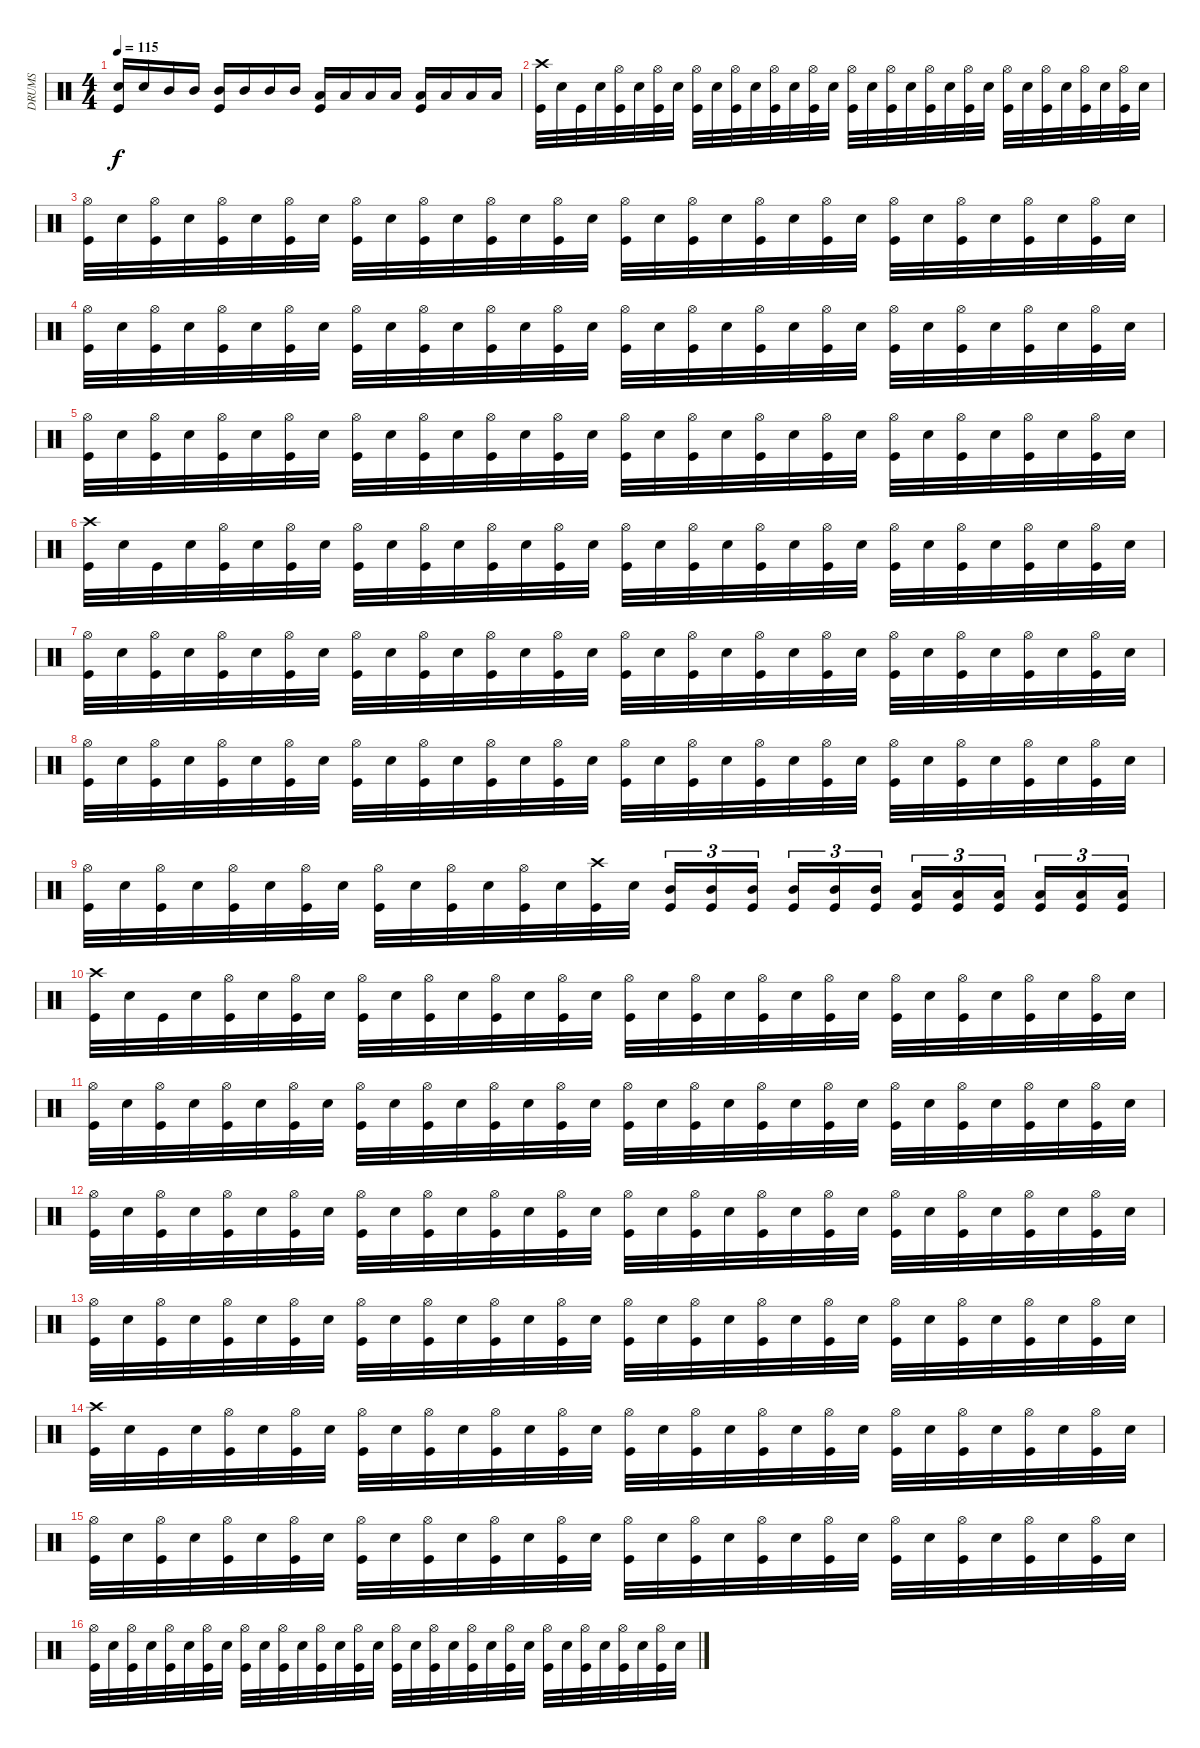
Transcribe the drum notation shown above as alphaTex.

\track ("DRUMS" "DRUMS") {instrument percussion}
\staff {score}
\articulation defaults
\ts (4 4)
\tempo 115
\clef neutral
\ks c
("Snare (hit) 2" "Kick (hit)").16{dy f} "Snare (hit) 2".16 "Mid Tom (hit)".16 "Mid Tom (hit)".16 ("Mid Tom (hit)" "Kick (hit)").16 "Mid Tom (hit)".16 "Mid Tom (hit)".16 "Mid Tom (hit)".16 ("Low Tom (hit)" "Kick (hit)").16 "Low Tom (hit)".16 "Low Tom (hit)".16 "Low Tom (hit)".16 ("Low Tom (hit)" "Kick (hit)").16 "Low Tom (hit)".16 "Low Tom (hit)".16 "Low Tom (hit)".16 |
("Crash high (hit)" "Kick (hit)").32 "Snare (hit) 2".32 "Kick (hit)".32 "Snare (hit) 2".32 ("Hi-Hat (open)" "Kick (hit)").32 "Snare (hit) 2".32 ("Hi-Hat (open)" "Kick (hit)").32 "Snare (hit) 2".32 ("Hi-Hat (open)" "Kick (hit)").32 "Snare (hit) 2".32 ("Hi-Hat (open)" "Kick (hit)").32 "Snare (hit) 2".32 ("Hi-Hat (open)" "Kick (hit)").32 "Snare (hit) 2".32 ("Hi-Hat (open)" "Kick (hit)").32 "Snare (hit) 2".32 ("Hi-Hat (open)" "Kick (hit)").32 "Snare (hit) 2".32 ("Hi-Hat (open)" "Kick (hit)").32 "Snare (hit) 2".32 ("Hi-Hat (open)" "Kick (hit)").32 "Snare (hit) 2".32 ("Hi-Hat (open)" "Kick (hit)").32 "Snare (hit) 2".32 ("Hi-Hat (open)" "Kick (hit)").32 "Snare (hit) 2".32 ("Hi-Hat (open)" "Kick (hit)").32 "Snare (hit) 2".32 ("Hi-Hat (open)" "Kick (hit)").32 "Snare (hit) 2".32 ("Hi-Hat (open)" "Kick (hit)").32 "Snare (hit) 2".32 |
("Hi-Hat (open)" "Kick (hit)").32 "Snare (hit) 2".32 ("Hi-Hat (open)" "Kick (hit)").32 "Snare (hit) 2".32 ("Hi-Hat (open)" "Kick (hit)").32 "Snare (hit) 2".32 ("Hi-Hat (open)" "Kick (hit)").32 "Snare (hit) 2".32 ("Hi-Hat (open)" "Kick (hit)").32 "Snare (hit) 2".32 ("Hi-Hat (open)" "Kick (hit)").32 "Snare (hit) 2".32 ("Hi-Hat (open)" "Kick (hit)").32 "Snare (hit) 2".32 ("Hi-Hat (open)" "Kick (hit)").32 "Snare (hit) 2".32 ("Hi-Hat (open)" "Kick (hit)").32 "Snare (hit) 2".32 ("Hi-Hat (open)" "Kick (hit)").32 "Snare (hit) 2".32 ("Hi-Hat (open)" "Kick (hit)").32 "Snare (hit) 2".32 ("Hi-Hat (open)" "Kick (hit)").32 "Snare (hit) 2".32 ("Hi-Hat (open)" "Kick (hit)").32 "Snare (hit) 2".32 ("Hi-Hat (open)" "Kick (hit)").32 "Snare (hit) 2".32 ("Hi-Hat (open)" "Kick (hit)").32 "Snare (hit) 2".32 ("Hi-Hat (open)" "Kick (hit)").32 "Snare (hit) 2".32 |
("Hi-Hat (open)" "Kick (hit)").32 "Snare (hit) 2".32 ("Hi-Hat (open)" "Kick (hit)").32 "Snare (hit) 2".32 ("Hi-Hat (open)" "Kick (hit)").32 "Snare (hit) 2".32 ("Hi-Hat (open)" "Kick (hit)").32 "Snare (hit) 2".32 ("Hi-Hat (open)" "Kick (hit)").32 "Snare (hit) 2".32 ("Hi-Hat (open)" "Kick (hit)").32 "Snare (hit) 2".32 ("Hi-Hat (open)" "Kick (hit)").32 "Snare (hit) 2".32 ("Hi-Hat (open)" "Kick (hit)").32 "Snare (hit) 2".32 ("Hi-Hat (open)" "Kick (hit)").32 "Snare (hit) 2".32 ("Hi-Hat (open)" "Kick (hit)").32 "Snare (hit) 2".32 ("Hi-Hat (open)" "Kick (hit)").32 "Snare (hit) 2".32 ("Hi-Hat (open)" "Kick (hit)").32 "Snare (hit) 2".32 ("Hi-Hat (open)" "Kick (hit)").32 "Snare (hit) 2".32 ("Hi-Hat (open)" "Kick (hit)").32 "Snare (hit) 2".32 ("Hi-Hat (open)" "Kick (hit)").32 "Snare (hit) 2".32 ("Hi-Hat (open)" "Kick (hit)").32 "Snare (hit) 2".32 |
("Hi-Hat (open)" "Kick (hit)").32 "Snare (hit) 2".32 ("Hi-Hat (open)" "Kick (hit)").32 "Snare (hit) 2".32 ("Hi-Hat (open)" "Kick (hit)").32 "Snare (hit) 2".32 ("Hi-Hat (open)" "Kick (hit)").32 "Snare (hit) 2".32 ("Hi-Hat (open)" "Kick (hit)").32 "Snare (hit) 2".32 ("Hi-Hat (open)" "Kick (hit)").32 "Snare (hit) 2".32 ("Hi-Hat (open)" "Kick (hit)").32 "Snare (hit) 2".32 ("Hi-Hat (open)" "Kick (hit)").32 "Snare (hit) 2".32 ("Hi-Hat (open)" "Kick (hit)").32 "Snare (hit) 2".32 ("Hi-Hat (open)" "Kick (hit)").32 "Snare (hit) 2".32 ("Hi-Hat (open)" "Kick (hit)").32 "Snare (hit) 2".32 ("Hi-Hat (open)" "Kick (hit)").32 "Snare (hit) 2".32 ("Hi-Hat (open)" "Kick (hit)").32 "Snare (hit) 2".32 ("Hi-Hat (open)" "Kick (hit)").32 "Snare (hit) 2".32 ("Hi-Hat (open)" "Kick (hit)").32 "Snare (hit) 2".32 ("Hi-Hat (open)" "Kick (hit)").32 "Snare (hit) 2".32 |
("Crash high (hit)" "Kick (hit)").32 "Snare (hit) 2".32 "Kick (hit)".32 "Snare (hit) 2".32 ("Hi-Hat (open)" "Kick (hit)").32 "Snare (hit) 2".32 ("Hi-Hat (open)" "Kick (hit)").32 "Snare (hit) 2".32 ("Hi-Hat (open)" "Kick (hit)").32 "Snare (hit) 2".32 ("Hi-Hat (open)" "Kick (hit)").32 "Snare (hit) 2".32 ("Hi-Hat (open)" "Kick (hit)").32 "Snare (hit) 2".32 ("Hi-Hat (open)" "Kick (hit)").32 "Snare (hit) 2".32 ("Hi-Hat (open)" "Kick (hit)").32 "Snare (hit) 2".32 ("Hi-Hat (open)" "Kick (hit)").32 "Snare (hit) 2".32 ("Hi-Hat (open)" "Kick (hit)").32 "Snare (hit) 2".32 ("Hi-Hat (open)" "Kick (hit)").32 "Snare (hit) 2".32 ("Hi-Hat (open)" "Kick (hit)").32 "Snare (hit) 2".32 ("Hi-Hat (open)" "Kick (hit)").32 "Snare (hit) 2".32 ("Hi-Hat (open)" "Kick (hit)").32 "Snare (hit) 2".32 ("Hi-Hat (open)" "Kick (hit)").32 "Snare (hit) 2".32 |
("Hi-Hat (open)" "Kick (hit)").32 "Snare (hit) 2".32 ("Hi-Hat (open)" "Kick (hit)").32 "Snare (hit) 2".32 ("Hi-Hat (open)" "Kick (hit)").32 "Snare (hit) 2".32 ("Hi-Hat (open)" "Kick (hit)").32 "Snare (hit) 2".32 ("Hi-Hat (open)" "Kick (hit)").32 "Snare (hit) 2".32 ("Hi-Hat (open)" "Kick (hit)").32 "Snare (hit) 2".32 ("Hi-Hat (open)" "Kick (hit)").32 "Snare (hit) 2".32 ("Hi-Hat (open)" "Kick (hit)").32 "Snare (hit) 2".32 ("Hi-Hat (open)" "Kick (hit)").32 "Snare (hit) 2".32 ("Hi-Hat (open)" "Kick (hit)").32 "Snare (hit) 2".32 ("Hi-Hat (open)" "Kick (hit)").32 "Snare (hit) 2".32 ("Hi-Hat (open)" "Kick (hit)").32 "Snare (hit) 2".32 ("Hi-Hat (open)" "Kick (hit)").32 "Snare (hit) 2".32 ("Hi-Hat (open)" "Kick (hit)").32 "Snare (hit) 2".32 ("Hi-Hat (open)" "Kick (hit)").32 "Snare (hit) 2".32 ("Hi-Hat (open)" "Kick (hit)").32 "Snare (hit) 2".32 |
("Hi-Hat (open)" "Kick (hit)").32 "Snare (hit) 2".32 ("Hi-Hat (open)" "Kick (hit)").32 "Snare (hit) 2".32 ("Hi-Hat (open)" "Kick (hit)").32 "Snare (hit) 2".32 ("Hi-Hat (open)" "Kick (hit)").32 "Snare (hit) 2".32 ("Hi-Hat (open)" "Kick (hit)").32 "Snare (hit) 2".32 ("Hi-Hat (open)" "Kick (hit)").32 "Snare (hit) 2".32 ("Hi-Hat (open)" "Kick (hit)").32 "Snare (hit) 2".32 ("Hi-Hat (open)" "Kick (hit)").32 "Snare (hit) 2".32 ("Hi-Hat (open)" "Kick (hit)").32 "Snare (hit) 2".32 ("Hi-Hat (open)" "Kick (hit)").32 "Snare (hit) 2".32 ("Hi-Hat (open)" "Kick (hit)").32 "Snare (hit) 2".32 ("Hi-Hat (open)" "Kick (hit)").32 "Snare (hit) 2".32 ("Hi-Hat (open)" "Kick (hit)").32 "Snare (hit) 2".32 ("Hi-Hat (open)" "Kick (hit)").32 "Snare (hit) 2".32 ("Hi-Hat (open)" "Kick (hit)").32 "Snare (hit) 2".32 ("Hi-Hat (open)" "Kick (hit)").32 "Snare (hit) 2".32 |
("Hi-Hat (open)" "Kick (hit)").32 "Snare (hit) 2".32 ("Hi-Hat (open)" "Kick (hit)").32 "Snare (hit) 2".32 ("Hi-Hat (open)" "Kick (hit)").32 "Snare (hit) 2".32 ("Hi-Hat (open)" "Kick (hit)").32 "Snare (hit) 2".32 ("Hi-Hat (open)" "Kick (hit)").32 "Snare (hit) 2".32 ("Hi-Hat (open)" "Kick (hit)").32 "Snare (hit) 2".32 ("Hi-Hat (open)" "Kick (hit)").32 "Snare (hit) 2".32 ("Crash high (hit)" "Kick (hit)").32 "Snare (hit) 2".32 ("Mid Tom (hit)" "Kick (hit)").16{tu (3 2)} ("Mid Tom (hit)" "Kick (hit)").16{tu (3 2)} ("Mid Tom (hit)" "Kick (hit)").16{tu (3 2)} ("Mid Tom (hit)" "Kick (hit)").16{tu (3 2)} ("Mid Tom (hit)" "Kick (hit)").16{tu (3 2)} ("Mid Tom (hit)" "Kick (hit)").16{tu (3 2)} ("Low Tom (hit)" "Kick (hit)").16{tu (3 2)} ("Low Tom (hit)" "Kick (hit)").16{tu (3 2)} ("Low Tom (hit)" "Kick (hit)").16{tu (3 2)} ("Low Tom (hit)" "Kick (hit)").16{tu (3 2)} ("Low Tom (hit)" "Kick (hit)").16{tu (3 2)} ("Low Tom (hit)" "Kick (hit)").16{tu (3 2)} |
("Crash high (hit)" "Kick (hit)").32 "Snare (hit) 2".32 "Kick (hit)".32 "Snare (hit) 2".32 ("Hi-Hat (open)" "Kick (hit)").32 "Snare (hit) 2".32 ("Hi-Hat (open)" "Kick (hit)").32 "Snare (hit) 2".32 ("Hi-Hat (open)" "Kick (hit)").32 "Snare (hit) 2".32 ("Hi-Hat (open)" "Kick (hit)").32 "Snare (hit) 2".32 ("Hi-Hat (open)" "Kick (hit)").32 "Snare (hit) 2".32 ("Hi-Hat (open)" "Kick (hit)").32 "Snare (hit) 2".32 ("Hi-Hat (open)" "Kick (hit)").32 "Snare (hit) 2".32 ("Hi-Hat (open)" "Kick (hit)").32 "Snare (hit) 2".32 ("Hi-Hat (open)" "Kick (hit)").32 "Snare (hit) 2".32 ("Hi-Hat (open)" "Kick (hit)").32 "Snare (hit) 2".32 ("Hi-Hat (open)" "Kick (hit)").32 "Snare (hit) 2".32 ("Hi-Hat (open)" "Kick (hit)").32 "Snare (hit) 2".32 ("Hi-Hat (open)" "Kick (hit)").32 "Snare (hit) 2".32 ("Hi-Hat (open)" "Kick (hit)").32 "Snare (hit) 2".32 |
("Hi-Hat (open)" "Kick (hit)").32 "Snare (hit) 2".32 ("Hi-Hat (open)" "Kick (hit)").32 "Snare (hit) 2".32 ("Hi-Hat (open)" "Kick (hit)").32 "Snare (hit) 2".32 ("Hi-Hat (open)" "Kick (hit)").32 "Snare (hit) 2".32 ("Hi-Hat (open)" "Kick (hit)").32 "Snare (hit) 2".32 ("Hi-Hat (open)" "Kick (hit)").32 "Snare (hit) 2".32 ("Hi-Hat (open)" "Kick (hit)").32 "Snare (hit) 2".32 ("Hi-Hat (open)" "Kick (hit)").32 "Snare (hit) 2".32 ("Hi-Hat (open)" "Kick (hit)").32 "Snare (hit) 2".32 ("Hi-Hat (open)" "Kick (hit)").32 "Snare (hit) 2".32 ("Hi-Hat (open)" "Kick (hit)").32 "Snare (hit) 2".32 ("Hi-Hat (open)" "Kick (hit)").32 "Snare (hit) 2".32 ("Hi-Hat (open)" "Kick (hit)").32 "Snare (hit) 2".32 ("Hi-Hat (open)" "Kick (hit)").32 "Snare (hit) 2".32 ("Hi-Hat (open)" "Kick (hit)").32 "Snare (hit) 2".32 ("Hi-Hat (open)" "Kick (hit)").32 "Snare (hit) 2".32 |
("Hi-Hat (open)" "Kick (hit)").32 "Snare (hit) 2".32 ("Hi-Hat (open)" "Kick (hit)").32 "Snare (hit) 2".32 ("Hi-Hat (open)" "Kick (hit)").32 "Snare (hit) 2".32 ("Hi-Hat (open)" "Kick (hit)").32 "Snare (hit) 2".32 ("Hi-Hat (open)" "Kick (hit)").32 "Snare (hit) 2".32 ("Hi-Hat (open)" "Kick (hit)").32 "Snare (hit) 2".32 ("Hi-Hat (open)" "Kick (hit)").32 "Snare (hit) 2".32 ("Hi-Hat (open)" "Kick (hit)").32 "Snare (hit) 2".32 ("Hi-Hat (open)" "Kick (hit)").32 "Snare (hit) 2".32 ("Hi-Hat (open)" "Kick (hit)").32 "Snare (hit) 2".32 ("Hi-Hat (open)" "Kick (hit)").32 "Snare (hit) 2".32 ("Hi-Hat (open)" "Kick (hit)").32 "Snare (hit) 2".32 ("Hi-Hat (open)" "Kick (hit)").32 "Snare (hit) 2".32 ("Hi-Hat (open)" "Kick (hit)").32 "Snare (hit) 2".32 ("Hi-Hat (open)" "Kick (hit)").32 "Snare (hit) 2".32 ("Hi-Hat (open)" "Kick (hit)").32 "Snare (hit) 2".32 |
("Hi-Hat (open)" "Kick (hit)").32 "Snare (hit) 2".32 ("Hi-Hat (open)" "Kick (hit)").32 "Snare (hit) 2".32 ("Hi-Hat (open)" "Kick (hit)").32 "Snare (hit) 2".32 ("Hi-Hat (open)" "Kick (hit)").32 "Snare (hit) 2".32 ("Hi-Hat (open)" "Kick (hit)").32 "Snare (hit) 2".32 ("Hi-Hat (open)" "Kick (hit)").32 "Snare (hit) 2".32 ("Hi-Hat (open)" "Kick (hit)").32 "Snare (hit) 2".32 ("Hi-Hat (open)" "Kick (hit)").32 "Snare (hit) 2".32 ("Hi-Hat (open)" "Kick (hit)").32 "Snare (hit) 2".32 ("Hi-Hat (open)" "Kick (hit)").32 "Snare (hit) 2".32 ("Hi-Hat (open)" "Kick (hit)").32 "Snare (hit) 2".32 ("Hi-Hat (open)" "Kick (hit)").32 "Snare (hit) 2".32 ("Hi-Hat (open)" "Kick (hit)").32 "Snare (hit) 2".32 ("Hi-Hat (open)" "Kick (hit)").32 "Snare (hit) 2".32 ("Hi-Hat (open)" "Kick (hit)").32 "Snare (hit) 2".32 ("Hi-Hat (open)" "Kick (hit)").32 "Snare (hit) 2".32 |
("Crash high (hit)" "Kick (hit)").32 "Snare (hit) 2".32 "Kick (hit)".32 "Snare (hit) 2".32 ("Hi-Hat (open)" "Kick (hit)").32 "Snare (hit) 2".32 ("Hi-Hat (open)" "Kick (hit)").32 "Snare (hit) 2".32 ("Hi-Hat (open)" "Kick (hit)").32 "Snare (hit) 2".32 ("Hi-Hat (open)" "Kick (hit)").32 "Snare (hit) 2".32 ("Hi-Hat (open)" "Kick (hit)").32 "Snare (hit) 2".32 ("Hi-Hat (open)" "Kick (hit)").32 "Snare (hit) 2".32 ("Hi-Hat (open)" "Kick (hit)").32 "Snare (hit) 2".32 ("Hi-Hat (open)" "Kick (hit)").32 "Snare (hit) 2".32 ("Hi-Hat (open)" "Kick (hit)").32 "Snare (hit) 2".32 ("Hi-Hat (open)" "Kick (hit)").32 "Snare (hit) 2".32 ("Hi-Hat (open)" "Kick (hit)").32 "Snare (hit) 2".32 ("Hi-Hat (open)" "Kick (hit)").32 "Snare (hit) 2".32 ("Hi-Hat (open)" "Kick (hit)").32 "Snare (hit) 2".32 ("Hi-Hat (open)" "Kick (hit)").32 "Snare (hit) 2".32 |
("Hi-Hat (open)" "Kick (hit)").32 "Snare (hit) 2".32 ("Hi-Hat (open)" "Kick (hit)").32 "Snare (hit) 2".32 ("Hi-Hat (open)" "Kick (hit)").32 "Snare (hit) 2".32 ("Hi-Hat (open)" "Kick (hit)").32 "Snare (hit) 2".32 ("Hi-Hat (open)" "Kick (hit)").32 "Snare (hit) 2".32 ("Hi-Hat (open)" "Kick (hit)").32 "Snare (hit) 2".32 ("Hi-Hat (open)" "Kick (hit)").32 "Snare (hit) 2".32 ("Hi-Hat (open)" "Kick (hit)").32 "Snare (hit) 2".32 ("Hi-Hat (open)" "Kick (hit)").32 "Snare (hit) 2".32 ("Hi-Hat (open)" "Kick (hit)").32 "Snare (hit) 2".32 ("Hi-Hat (open)" "Kick (hit)").32 "Snare (hit) 2".32 ("Hi-Hat (open)" "Kick (hit)").32 "Snare (hit) 2".32 ("Hi-Hat (open)" "Kick (hit)").32 "Snare (hit) 2".32 ("Hi-Hat (open)" "Kick (hit)").32 "Snare (hit) 2".32 ("Hi-Hat (open)" "Kick (hit)").32 "Snare (hit) 2".32 ("Hi-Hat (open)" "Kick (hit)").32 "Snare (hit) 2".32 |
("Hi-Hat (open)" "Kick (hit)").32 "Snare (hit) 2".32 ("Hi-Hat (open)" "Kick (hit)").32 "Snare (hit) 2".32 ("Hi-Hat (open)" "Kick (hit)").32 "Snare (hit) 2".32 ("Hi-Hat (open)" "Kick (hit)").32 "Snare (hit) 2".32 ("Hi-Hat (open)" "Kick (hit)").32 "Snare (hit) 2".32 ("Hi-Hat (open)" "Kick (hit)").32 "Snare (hit) 2".32 ("Hi-Hat (open)" "Kick (hit)").32 "Snare (hit) 2".32 ("Hi-Hat (open)" "Kick (hit)").32 "Snare (hit) 2".32 ("Hi-Hat (open)" "Kick (hit)").32 "Snare (hit) 2".32 ("Hi-Hat (open)" "Kick (hit)").32 "Snare (hit) 2".32 ("Hi-Hat (open)" "Kick (hit)").32 "Snare (hit) 2".32 ("Hi-Hat (open)" "Kick (hit)").32 "Snare (hit) 2".32 ("Hi-Hat (open)" "Kick (hit)").32 "Snare (hit) 2".32 ("Hi-Hat (open)" "Kick (hit)").32 "Snare (hit) 2".32 ("Hi-Hat (open)" "Kick (hit)").32 "Snare (hit) 2".32 ("Hi-Hat (open)" "Kick (hit)").32 "Snare (hit) 2".32
